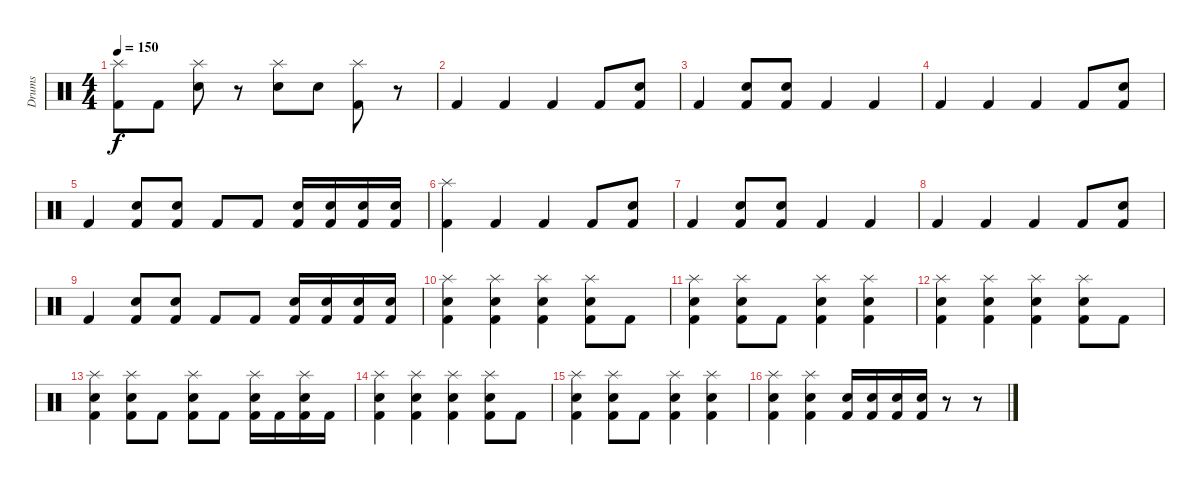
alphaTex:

\track ("Drums" "Drums") {instrument percussion}
\staff {score}
\articulation defaults
\ts (4 4)
\tempo 150
\clef neutral
\ks c
("Splash (hit)" "Kick (hit) 2").8{dy f} "Kick (hit) 2".8 ("Splash (hit)" "Snare (hit) 2").8 r.8 ("Splash (hit)" "Snare (hit) 2").8 "Snare (hit) 2".8 ("Splash (hit)" "Kick (hit) 2").8 r.8 |
"Kick (hit) 2".4 "Kick (hit) 2".4 "Kick (hit) 2".4 "Kick (hit) 2".8 ("Snare (hit) 2" "Kick (hit) 2").8 |
"Kick (hit) 2".4 ("Snare (hit) 2" "Kick (hit) 2").8 ("Snare (hit) 2" "Kick (hit) 2").8 "Kick (hit) 2".4 "Kick (hit) 2".4 |
"Kick (hit) 2".4 "Kick (hit) 2".4 "Kick (hit) 2".4 "Kick (hit) 2".8 ("Snare (hit) 2" "Kick (hit) 2").8 |
"Kick (hit) 2".4 ("Snare (hit) 2" "Kick (hit) 2").8 ("Snare (hit) 2" "Kick (hit) 2").8 "Kick (hit) 2".8 "Kick (hit) 2".8 ("Snare (hit) 2" "Kick (hit) 2").16 ("Snare (hit) 2" "Kick (hit) 2").16 ("Snare (hit) 2" "Kick (hit) 2").16 ("Snare (hit) 2" "Kick (hit) 2").16 |
("Splash (hit)" "Kick (hit) 2").4 "Kick (hit) 2".4 "Kick (hit) 2".4 "Kick (hit) 2".8 ("Snare (hit) 2" "Kick (hit) 2").8 |
"Kick (hit) 2".4 ("Snare (hit) 2" "Kick (hit) 2").8 ("Snare (hit) 2" "Kick (hit) 2").8 "Kick (hit) 2".4 "Kick (hit) 2".4 |
"Kick (hit) 2".4 "Kick (hit) 2".4 "Kick (hit) 2".4 "Kick (hit) 2".8 ("Snare (hit) 2" "Kick (hit) 2").8 |
"Kick (hit) 2".4 ("Snare (hit) 2" "Kick (hit) 2").8 ("Snare (hit) 2" "Kick (hit) 2").8 "Kick (hit) 2".8 "Kick (hit) 2".8 ("Snare (hit) 2" "Kick (hit) 2").16 ("Snare (hit) 2" "Kick (hit) 2").16 ("Snare (hit) 2" "Kick (hit) 2").16 ("Snare (hit) 2" "Kick (hit) 2").16 |
("Splash (hit)" "Snare (hit) 2" "Kick (hit) 2").4 ("Splash (hit)" "Snare (hit) 2" "Kick (hit) 2").4 ("Splash (hit)" "Snare (hit) 2" "Kick (hit) 2").4 ("Splash (hit)" "Snare (hit) 2" "Kick (hit) 2").8 "Kick (hit) 2".8 |
("Splash (hit)" "Snare (hit) 2" "Kick (hit) 2").4 ("Splash (hit)" "Snare (hit) 2" "Kick (hit) 2").8 "Kick (hit) 2".8 ("Splash (hit)" "Snare (hit) 2" "Kick (hit) 2").4 ("Splash (hit)" "Snare (hit) 2" "Kick (hit) 2").4 |
("Splash (hit)" "Snare (hit) 2" "Kick (hit) 2").4 ("Splash (hit)" "Snare (hit) 2" "Kick (hit) 2").4 ("Splash (hit)" "Snare (hit) 2" "Kick (hit) 2").4 ("Splash (hit)" "Snare (hit) 2" "Kick (hit) 2").8 "Kick (hit) 2".8 |
("Splash (hit)" "Snare (hit) 2" "Kick (hit) 2").4 ("Splash (hit)" "Snare (hit) 2" "Kick (hit) 2").8 "Kick (hit) 2".8 ("Splash (hit)" "Snare (hit) 2" "Kick (hit) 2").8 "Kick (hit) 2".8 ("Splash (hit)" "Snare (hit) 2" "Kick (hit) 2").16 "Kick (hit) 2".16 ("Splash (hit)" "Snare (hit) 2" "Kick (hit) 2").16 "Kick (hit) 2".16 |
("Splash (hit)" "Snare (hit) 2" "Kick (hit) 2").4 ("Splash (hit)" "Snare (hit) 2" "Kick (hit) 2").4 ("Splash (hit)" "Snare (hit) 2" "Kick (hit) 2").4 ("Splash (hit)" "Snare (hit) 2" "Kick (hit) 2").8 "Kick (hit) 2".8 |
("Splash (hit)" "Snare (hit) 2" "Kick (hit) 2").4 ("Splash (hit)" "Snare (hit) 2" "Kick (hit) 2").8 "Kick (hit) 2".8 ("Splash (hit)" "Snare (hit) 2" "Kick (hit) 2").4 ("Splash (hit)" "Snare (hit) 2" "Kick (hit) 2").4 |
("Splash (hit)" "Snare (hit) 2" "Kick (hit) 2").4 ("Splash (hit)" "Snare (hit) 2" "Kick (hit) 2").4 ("Snare (hit) 2" "Kick (hit) 2").16 ("Snare (hit) 2" "Kick (hit) 2").16 ("Snare (hit) 2" "Kick (hit) 2").16 ("Snare (hit) 2" "Kick (hit) 2").16 r.8 r.8
